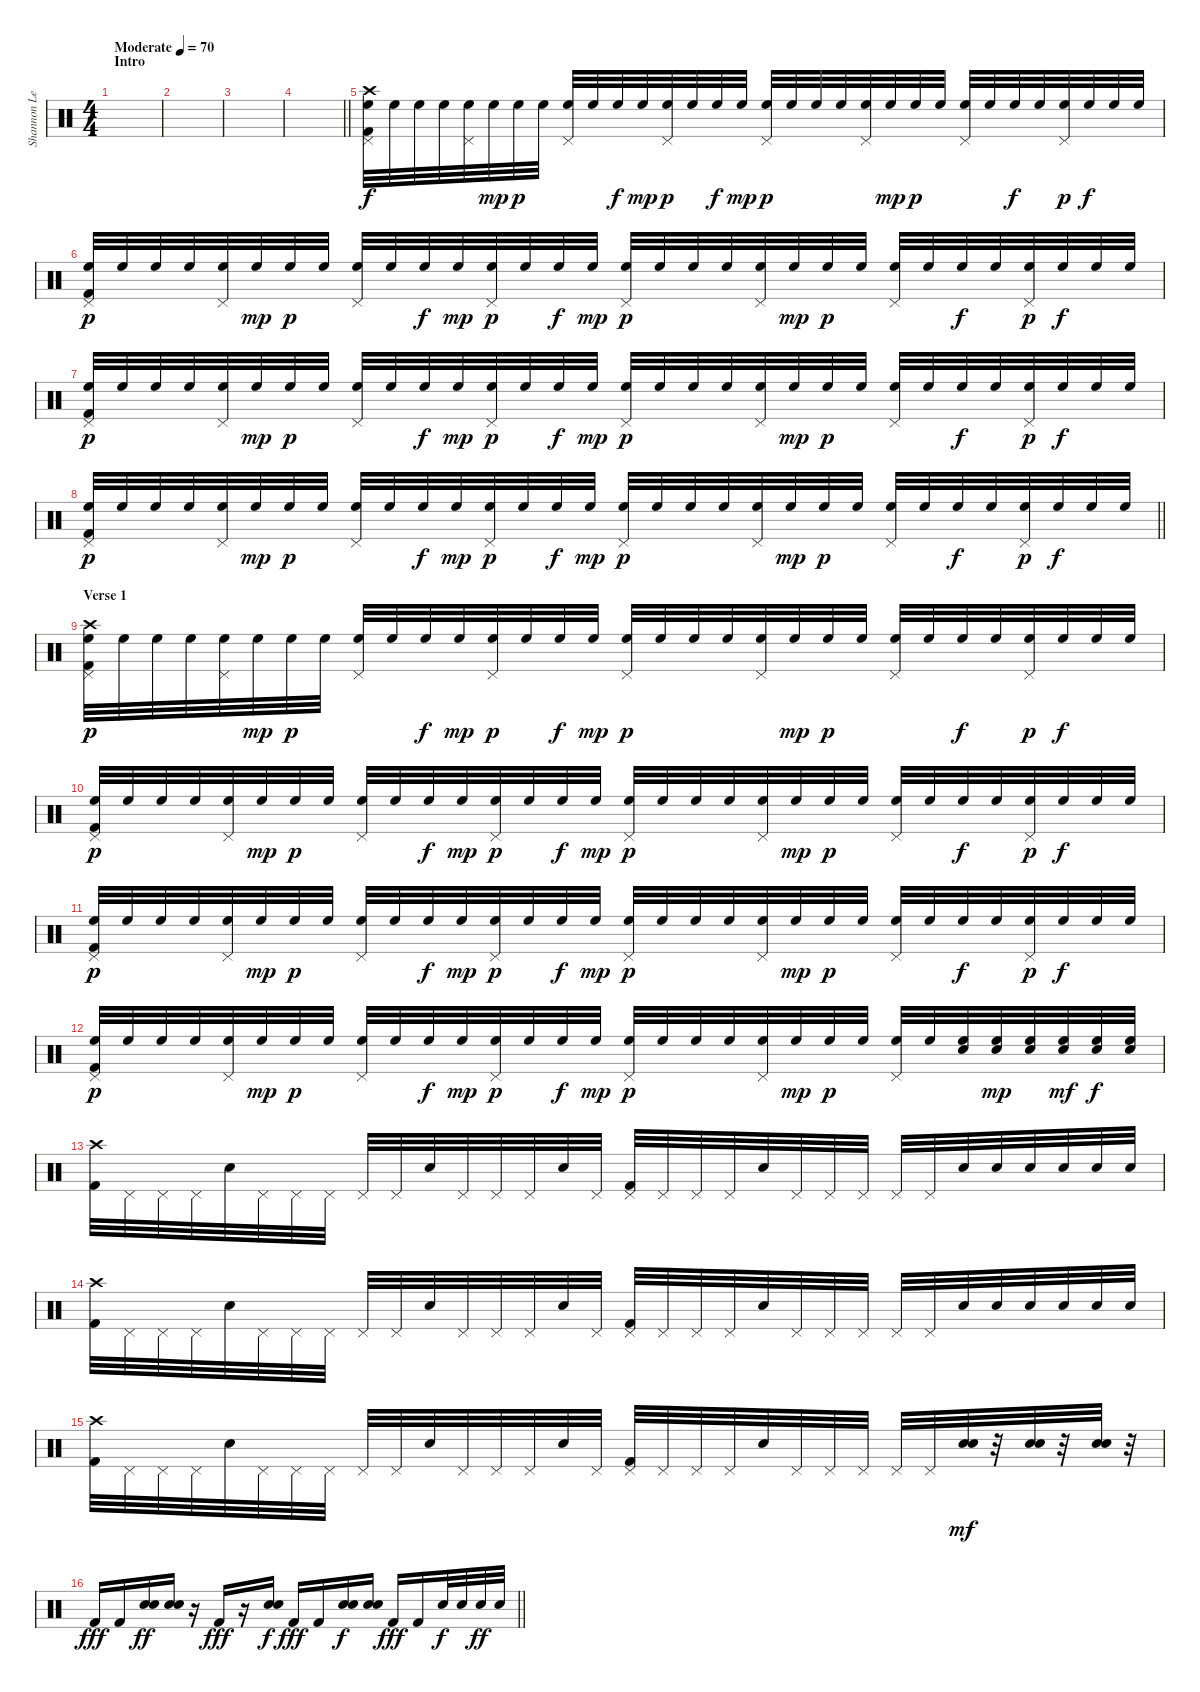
\track ("Shannon Leto - Drums" "Shannon Le") {instrument percussion}
\staff {score}
\articulation defaults
\ts (4 4)
\section ("" "Intro")
\tempo (70 "Moderate")
\clef neutral
\ks c
|
|
|
\barLineRight lightlight
|
\section ("" "")
("Crash high (hit)" "Pedal Hi-Hat (hit)" "High Floor Tom (hit)" "Kick (hit) 2").32 "High Floor Tom (hit)".32 "High Floor Tom (hit)".32 "High Floor Tom (hit)".32 ("Pedal Hi-Hat (hit)" "High Floor Tom (hit)").32 "High Floor Tom (hit)".32{dy mp} "High Floor Tom (hit)".32{dy p} "High Floor Tom (hit)".32 ("Pedal Hi-Hat (hit)" "High Floor Tom (hit)").32 "High Floor Tom (hit)".32 "High Floor Tom (hit)".32{dy f} "High Floor Tom (hit)".32{dy mp} ("Pedal Hi-Hat (hit)" "High Floor Tom (hit)").32{dy p} "High Floor Tom (hit)".32 "High Floor Tom (hit)".32{dy f} "High Floor Tom (hit)".32{dy mp} ("Pedal Hi-Hat (hit)" "High Floor Tom (hit)").32{dy p} "High Floor Tom (hit)".32 "High Floor Tom (hit)".32 "High Floor Tom (hit)".32 ("Pedal Hi-Hat (hit)" "High Floor Tom (hit)").32 "High Floor Tom (hit)".32{dy mp} "High Floor Tom (hit)".32{dy p} "High Floor Tom (hit)".32 ("Pedal Hi-Hat (hit)" "High Floor Tom (hit)").32 "High Floor Tom (hit)".32 "High Floor Tom (hit)".32{dy f} "High Floor Tom (hit)".32 ("Pedal Hi-Hat (hit)" "High Floor Tom (hit)").32{dy p} "High Floor Tom (hit)".32{dy f} "High Floor Tom (hit)".32 "High Floor Tom (hit)".32 |
("Pedal Hi-Hat (hit)" "High Floor Tom (hit)" "Kick (hit) 2").32{dy p} "High Floor Tom (hit)".32 "High Floor Tom (hit)".32 "High Floor Tom (hit)".32 ("Pedal Hi-Hat (hit)" "High Floor Tom (hit)").32 "High Floor Tom (hit)".32{dy mp} "High Floor Tom (hit)".32{dy p} "High Floor Tom (hit)".32 ("Pedal Hi-Hat (hit)" "High Floor Tom (hit)").32 "High Floor Tom (hit)".32 "High Floor Tom (hit)".32{dy f} "High Floor Tom (hit)".32{dy mp} ("Pedal Hi-Hat (hit)" "High Floor Tom (hit)").32{dy p} "High Floor Tom (hit)".32 "High Floor Tom (hit)".32{dy f} "High Floor Tom (hit)".32{dy mp} ("Pedal Hi-Hat (hit)" "High Floor Tom (hit)").32{dy p} "High Floor Tom (hit)".32 "High Floor Tom (hit)".32 "High Floor Tom (hit)".32 ("Pedal Hi-Hat (hit)" "High Floor Tom (hit)").32 "High Floor Tom (hit)".32{dy mp} "High Floor Tom (hit)".32{dy p} "High Floor Tom (hit)".32 ("Pedal Hi-Hat (hit)" "High Floor Tom (hit)").32 "High Floor Tom (hit)".32 "High Floor Tom (hit)".32{dy f} "High Floor Tom (hit)".32 ("Pedal Hi-Hat (hit)" "High Floor Tom (hit)").32{dy p} "High Floor Tom (hit)".32{dy f} "High Floor Tom (hit)".32 "High Floor Tom (hit)".32 |
("Pedal Hi-Hat (hit)" "High Floor Tom (hit)" "Kick (hit) 2").32{dy p} "High Floor Tom (hit)".32 "High Floor Tom (hit)".32 "High Floor Tom (hit)".32 ("Pedal Hi-Hat (hit)" "High Floor Tom (hit)").32 "High Floor Tom (hit)".32{dy mp} "High Floor Tom (hit)".32{dy p} "High Floor Tom (hit)".32 ("Pedal Hi-Hat (hit)" "High Floor Tom (hit)").32 "High Floor Tom (hit)".32 "High Floor Tom (hit)".32{dy f} "High Floor Tom (hit)".32{dy mp} ("Pedal Hi-Hat (hit)" "High Floor Tom (hit)").32{dy p} "High Floor Tom (hit)".32 "High Floor Tom (hit)".32{dy f} "High Floor Tom (hit)".32{dy mp} ("Pedal Hi-Hat (hit)" "High Floor Tom (hit)").32{dy p} "High Floor Tom (hit)".32 "High Floor Tom (hit)".32 "High Floor Tom (hit)".32 ("Pedal Hi-Hat (hit)" "High Floor Tom (hit)").32 "High Floor Tom (hit)".32{dy mp} "High Floor Tom (hit)".32{dy p} "High Floor Tom (hit)".32 ("Pedal Hi-Hat (hit)" "High Floor Tom (hit)").32 "High Floor Tom (hit)".32 "High Floor Tom (hit)".32{dy f} "High Floor Tom (hit)".32 ("Pedal Hi-Hat (hit)" "High Floor Tom (hit)").32{dy p} "High Floor Tom (hit)".32{dy f} "High Floor Tom (hit)".32 "High Floor Tom (hit)".32 |
\barLineRight lightlight
("Pedal Hi-Hat (hit)" "High Floor Tom (hit)" "Kick (hit) 2").32{dy p} "High Floor Tom (hit)".32 "High Floor Tom (hit)".32 "High Floor Tom (hit)".32 ("Pedal Hi-Hat (hit)" "High Floor Tom (hit)").32 "High Floor Tom (hit)".32{dy mp} "High Floor Tom (hit)".32{dy p} "High Floor Tom (hit)".32 ("Pedal Hi-Hat (hit)" "High Floor Tom (hit)").32 "High Floor Tom (hit)".32 "High Floor Tom (hit)".32{dy f} "High Floor Tom (hit)".32{dy mp} ("Pedal Hi-Hat (hit)" "High Floor Tom (hit)").32{dy p} "High Floor Tom (hit)".32 "High Floor Tom (hit)".32{dy f} "High Floor Tom (hit)".32{dy mp} ("Pedal Hi-Hat (hit)" "High Floor Tom (hit)").32{dy p} "High Floor Tom (hit)".32 "High Floor Tom (hit)".32 "High Floor Tom (hit)".32 ("Pedal Hi-Hat (hit)" "High Floor Tom (hit)").32 "High Floor Tom (hit)".32{dy mp} "High Floor Tom (hit)".32{dy p} "High Floor Tom (hit)".32 ("Pedal Hi-Hat (hit)" "High Floor Tom (hit)").32 "High Floor Tom (hit)".32 "High Floor Tom (hit)".32{dy f} "High Floor Tom (hit)".32 ("Pedal Hi-Hat (hit)" "High Floor Tom (hit)").32{dy p} "High Floor Tom (hit)".32{dy f} "High Floor Tom (hit)".32 "High Floor Tom (hit)".32 |
\section ("" "Verse 1")
("Crash high (hit)" "Pedal Hi-Hat (hit)" "High Floor Tom (hit)" "Kick (hit) 2").32{dy p} "High Floor Tom (hit)".32 "High Floor Tom (hit)".32 "High Floor Tom (hit)".32 ("Pedal Hi-Hat (hit)" "High Floor Tom (hit)").32 "High Floor Tom (hit)".32{dy mp} "High Floor Tom (hit)".32{dy p} "High Floor Tom (hit)".32 ("Pedal Hi-Hat (hit)" "High Floor Tom (hit)").32 "High Floor Tom (hit)".32 "High Floor Tom (hit)".32{dy f} "High Floor Tom (hit)".32{dy mp} ("Pedal Hi-Hat (hit)" "High Floor Tom (hit)").32{dy p} "High Floor Tom (hit)".32 "High Floor Tom (hit)".32{dy f} "High Floor Tom (hit)".32{dy mp} ("Pedal Hi-Hat (hit)" "High Floor Tom (hit)").32{dy p} "High Floor Tom (hit)".32 "High Floor Tom (hit)".32 "High Floor Tom (hit)".32 ("Pedal Hi-Hat (hit)" "High Floor Tom (hit)").32 "High Floor Tom (hit)".32{dy mp} "High Floor Tom (hit)".32{dy p} "High Floor Tom (hit)".32 ("Pedal Hi-Hat (hit)" "High Floor Tom (hit)").32 "High Floor Tom (hit)".32 "High Floor Tom (hit)".32{dy f} "High Floor Tom (hit)".32 ("Pedal Hi-Hat (hit)" "High Floor Tom (hit)").32{dy p} "High Floor Tom (hit)".32{dy f} "High Floor Tom (hit)".32 "High Floor Tom (hit)".32 |
("Pedal Hi-Hat (hit)" "High Floor Tom (hit)" "Kick (hit) 2").32{dy p} "High Floor Tom (hit)".32 "High Floor Tom (hit)".32 "High Floor Tom (hit)".32 ("Pedal Hi-Hat (hit)" "High Floor Tom (hit)").32 "High Floor Tom (hit)".32{dy mp} "High Floor Tom (hit)".32{dy p} "High Floor Tom (hit)".32 ("Pedal Hi-Hat (hit)" "High Floor Tom (hit)").32 "High Floor Tom (hit)".32 "High Floor Tom (hit)".32{dy f} "High Floor Tom (hit)".32{dy mp} ("Pedal Hi-Hat (hit)" "High Floor Tom (hit)").32{dy p} "High Floor Tom (hit)".32 "High Floor Tom (hit)".32{dy f} "High Floor Tom (hit)".32{dy mp} ("Pedal Hi-Hat (hit)" "High Floor Tom (hit)").32{dy p} "High Floor Tom (hit)".32 "High Floor Tom (hit)".32 "High Floor Tom (hit)".32 ("Pedal Hi-Hat (hit)" "High Floor Tom (hit)").32 "High Floor Tom (hit)".32{dy mp} "High Floor Tom (hit)".32{dy p} "High Floor Tom (hit)".32 ("Pedal Hi-Hat (hit)" "High Floor Tom (hit)").32 "High Floor Tom (hit)".32 "High Floor Tom (hit)".32{dy f} "High Floor Tom (hit)".32 ("Pedal Hi-Hat (hit)" "High Floor Tom (hit)").32{dy p} "High Floor Tom (hit)".32{dy f} "High Floor Tom (hit)".32 "High Floor Tom (hit)".32 |
("Pedal Hi-Hat (hit)" "High Floor Tom (hit)" "Kick (hit) 2").32{dy p} "High Floor Tom (hit)".32 "High Floor Tom (hit)".32 "High Floor Tom (hit)".32 ("Pedal Hi-Hat (hit)" "High Floor Tom (hit)").32 "High Floor Tom (hit)".32{dy mp} "High Floor Tom (hit)".32{dy p} "High Floor Tom (hit)".32 ("Pedal Hi-Hat (hit)" "High Floor Tom (hit)").32 "High Floor Tom (hit)".32 "High Floor Tom (hit)".32{dy f} "High Floor Tom (hit)".32{dy mp} ("Pedal Hi-Hat (hit)" "High Floor Tom (hit)").32{dy p} "High Floor Tom (hit)".32 "High Floor Tom (hit)".32{dy f} "High Floor Tom (hit)".32{dy mp} ("Pedal Hi-Hat (hit)" "High Floor Tom (hit)").32{dy p} "High Floor Tom (hit)".32 "High Floor Tom (hit)".32 "High Floor Tom (hit)".32 ("Pedal Hi-Hat (hit)" "High Floor Tom (hit)").32 "High Floor Tom (hit)".32{dy mp} "High Floor Tom (hit)".32{dy p} "High Floor Tom (hit)".32 ("Pedal Hi-Hat (hit)" "High Floor Tom (hit)").32 "High Floor Tom (hit)".32 "High Floor Tom (hit)".32{dy f} "High Floor Tom (hit)".32 ("Pedal Hi-Hat (hit)" "High Floor Tom (hit)").32{dy p} "High Floor Tom (hit)".32{dy f} "High Floor Tom (hit)".32 "High Floor Tom (hit)".32 |
("Pedal Hi-Hat (hit)" "High Floor Tom (hit)" "Kick (hit) 2").32{dy p} "High Floor Tom (hit)".32 "High Floor Tom (hit)".32 "High Floor Tom (hit)".32 ("Pedal Hi-Hat (hit)" "High Floor Tom (hit)").32 "High Floor Tom (hit)".32{dy mp} "High Floor Tom (hit)".32{dy p} "High Floor Tom (hit)".32 ("Pedal Hi-Hat (hit)" "High Floor Tom (hit)").32 "High Floor Tom (hit)".32 "High Floor Tom (hit)".32{dy f} "High Floor Tom (hit)".32{dy mp} ("Pedal Hi-Hat (hit)" "High Floor Tom (hit)").32{dy p} "High Floor Tom (hit)".32 "High Floor Tom (hit)".32{dy f} "High Floor Tom (hit)".32{dy mp} ("Pedal Hi-Hat (hit)" "High Floor Tom (hit)").32{dy p} "High Floor Tom (hit)".32 "High Floor Tom (hit)".32 "High Floor Tom (hit)".32 ("Pedal Hi-Hat (hit)" "High Floor Tom (hit)").32 "High Floor Tom (hit)".32{dy mp} "High Floor Tom (hit)".32{dy p} "High Floor Tom (hit)".32 ("Pedal Hi-Hat (hit)" "High Floor Tom (hit)").32 "High Floor Tom (hit)".32 ("Electric Snare (hit)" "High Floor Tom (hit)").32 ("Electric Snare (hit)" "High Floor Tom (hit)").32{dy mp} ("Electric Snare (hit)" "High Floor Tom (hit)").32 ("Electric Snare (hit)" "High Floor Tom (hit)").32{dy mf} ("Electric Snare (hit)" "High Floor Tom (hit)").32{dy f} ("Electric Snare (hit)" "High Floor Tom (hit)").32 |
("Crash high (hit)" "Kick (hit) 2").32 "Pedal Hi-Hat (hit)".32 "Pedal Hi-Hat (hit)".32 "Pedal Hi-Hat (hit)".32 "Electric Snare (hit)".32 "Pedal Hi-Hat (hit)".32 "Pedal Hi-Hat (hit)".32 "Pedal Hi-Hat (hit)".32 "Pedal Hi-Hat (hit)".32 "Pedal Hi-Hat (hit)".32 "Electric Snare (hit)".32 "Pedal Hi-Hat (hit)".32 "Pedal Hi-Hat (hit)".32 "Pedal Hi-Hat (hit)".32 "Electric Snare (hit)".32 "Pedal Hi-Hat (hit)".32 ("Pedal Hi-Hat (hit)" "Kick (hit) 2").32 "Pedal Hi-Hat (hit)".32 "Pedal Hi-Hat (hit)".32 "Pedal Hi-Hat (hit)".32 "Electric Snare (hit)".32 "Pedal Hi-Hat (hit)".32 "Pedal Hi-Hat (hit)".32 "Pedal Hi-Hat (hit)".32 "Pedal Hi-Hat (hit)".32 "Pedal Hi-Hat (hit)".32 "Electric Snare (hit)".32 "Electric Snare (hit)".32 "Electric Snare (hit)".32 "Electric Snare (hit)".32 "Electric Snare (hit)".32 "Electric Snare (hit)".32 |
("Crash high (hit)" "Kick (hit) 2").32 "Pedal Hi-Hat (hit)".32 "Pedal Hi-Hat (hit)".32 "Pedal Hi-Hat (hit)".32 "Electric Snare (hit)".32 "Pedal Hi-Hat (hit)".32 "Pedal Hi-Hat (hit)".32 "Pedal Hi-Hat (hit)".32 "Pedal Hi-Hat (hit)".32 "Pedal Hi-Hat (hit)".32 "Electric Snare (hit)".32 "Pedal Hi-Hat (hit)".32 "Pedal Hi-Hat (hit)".32 "Pedal Hi-Hat (hit)".32 "Electric Snare (hit)".32 "Pedal Hi-Hat (hit)".32 ("Pedal Hi-Hat (hit)" "Kick (hit) 2").32 "Pedal Hi-Hat (hit)".32 "Pedal Hi-Hat (hit)".32 "Pedal Hi-Hat (hit)".32 "Electric Snare (hit)".32 "Pedal Hi-Hat (hit)".32 "Pedal Hi-Hat (hit)".32 "Pedal Hi-Hat (hit)".32 "Pedal Hi-Hat (hit)".32 "Pedal Hi-Hat (hit)".32 "Electric Snare (hit)".32 "Electric Snare (hit)".32 "Electric Snare (hit)".32 "Electric Snare (hit)".32 "Electric Snare (hit)".32 "Electric Snare (hit)".32 |
("Crash high (hit)" "Kick (hit) 2").32 "Pedal Hi-Hat (hit)".32 "Pedal Hi-Hat (hit)".32 "Pedal Hi-Hat (hit)".32 "Electric Snare (hit)".32 "Pedal Hi-Hat (hit)".32 "Pedal Hi-Hat (hit)".32 "Pedal Hi-Hat (hit)".32 "Pedal Hi-Hat (hit)".32 "Pedal Hi-Hat (hit)".32 "Electric Snare (hit)".32 "Pedal Hi-Hat (hit)".32 "Pedal Hi-Hat (hit)".32 "Pedal Hi-Hat (hit)".32 "Electric Snare (hit)".32 "Pedal Hi-Hat (hit)".32 ("Pedal Hi-Hat (hit)" "Kick (hit) 2").32 "Pedal Hi-Hat (hit)".32 "Pedal Hi-Hat (hit)".32 "Pedal Hi-Hat (hit)".32 "Electric Snare (hit)".32 "Pedal Hi-Hat (hit)".32 "Pedal Hi-Hat (hit)".32 "Pedal Hi-Hat (hit)".32 "Pedal Hi-Hat (hit)".32 "Pedal Hi-Hat (hit)".32 ("Electric Snare (hit)" "Electric Snare (hit)").32{dy mf} r.32 ("Electric Snare (hit)" "Electric Snare (hit)").32 r.32 ("Electric Snare (hit)" "Electric Snare (hit)").32 r.32 |
\barLineRight lightlight "Kick (hit) 2".16{dy fff} "Kick (hit) 2".16
("Electric Snare (hit)" "Electric Snare (hit)").16{bd 30 dy ff} ("Electric Snare (hit)" "Electric Snare (hit)").16{bd 30} r.16 "Kick (hit) 2".16{dy fff} r.16 ("Electric Snare (hit)" "Electric Snare (hit)").16{bd 30 dy f} "Kick (hit) 2".16{dy fff} "Kick (hit) 2".16 ("Electric Snare (hit)" "Electric Snare (hit)").16{bd 30 dy f} ("Electric Snare (hit)" "Electric Snare (hit)").16{bu 30} "Kick (hit) 2".16{dy fff} "Kick (hit) 2".16 "Electric Snare (hit)".32{dy f} "Electric Snare (hit)".32 "Electric Snare (hit)".32{dy ff} "Electric Snare (hit)".32
